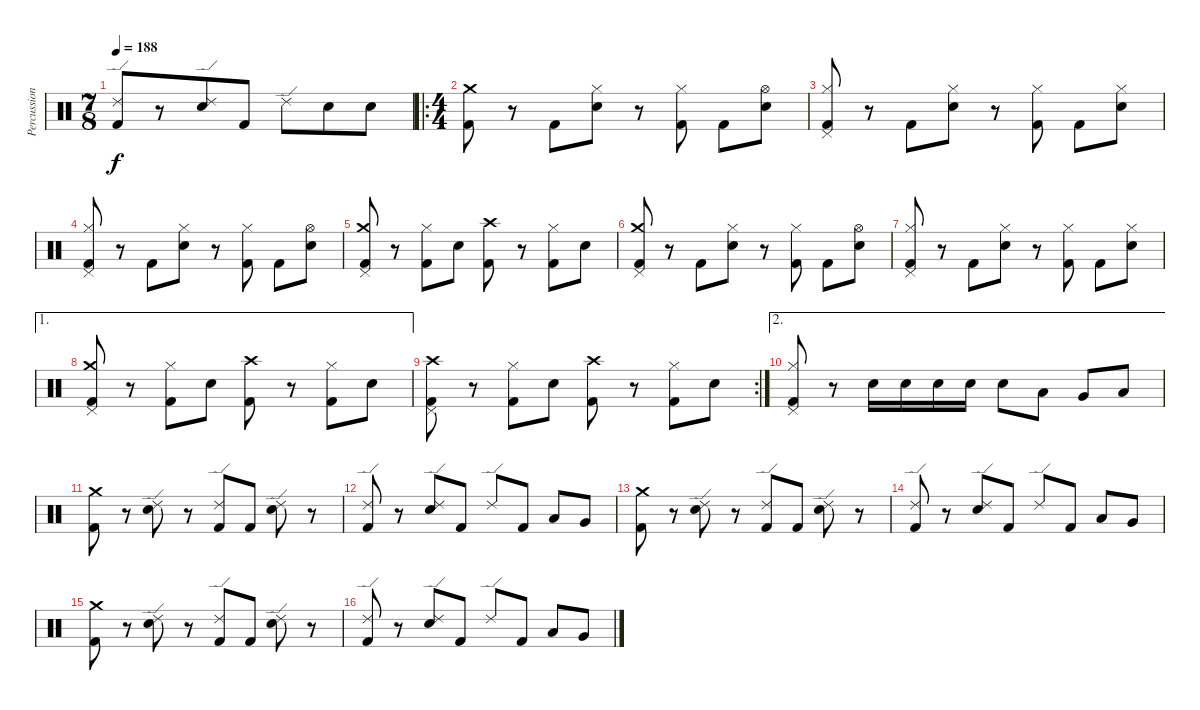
\track ("Percussion" "Percussion") {instrument percussion}
\staff {score}
\articulation defaults
\ts (7 8)
\tempo 188
\clef neutral
\ks c
("Ride (edge) 2" "Kick (hit) 2").8{dy f} r.8 ("Ride (edge) 2" "Snare (hit) 2").8 "Kick (hit) 2".8 "Ride (edge) 2".8 "Snare (hit) 2".8 "Snare (hit) 2".8 |
\ro
\ts (4 4)
("Crash medium (hit)" "Kick (hit) 2").8 r.8 "Kick (hit) 2".8 ("Hi-Hat (closed)" "Snare (hit) 2").8 r.8 ("Hi-Hat (closed)" "Kick (hit) 2").8 "Kick (hit) 2".8 ("Hi-Hat (open)" "Snare (hit) 2").8 |
("Hi-Hat (closed)" "Pedal Hi-Hat (hit)" "Kick (hit) 2").8 r.8 "Kick (hit) 2".8 ("Hi-Hat (closed)" "Snare (hit) 2").8 r.8 ("Hi-Hat (closed)" "Kick (hit) 2").8 "Kick (hit) 2".8 ("Hi-Hat (closed)" "Snare (hit) 2").8 |
("Hi-Hat (closed)" "Pedal Hi-Hat (hit)" "Kick (hit) 2").8 r.8 "Kick (hit) 2".8 ("Hi-Hat (closed)" "Snare (hit) 2").8 r.8 ("Hi-Hat (closed)" "Kick (hit) 2").8 "Kick (hit) 2".8 ("Hi-Hat (open)" "Snare (hit) 2").8 |
("Crash medium (hit)" "Pedal Hi-Hat (hit)" "Kick (hit) 2").8 r.8 ("Hi-Hat (closed)" "Kick (hit) 2").8 "Snare (hit) 2".8 ("Crash high (hit)" "Kick (hit) 2").8 r.8 ("Hi-Hat (closed)" "Kick (hit) 2").8 "Snare (hit) 2".8 |
("Crash medium (hit)" "Pedal Hi-Hat (hit)" "Kick (hit) 2").8 r.8 "Kick (hit) 2".8 ("Hi-Hat (closed)" "Snare (hit) 2").8 r.8 ("Hi-Hat (closed)" "Kick (hit) 2").8 "Kick (hit) 2".8 ("Hi-Hat (open)" "Snare (hit) 2").8 |
("Hi-Hat (closed)" "Pedal Hi-Hat (hit)" "Kick (hit) 2").8 r.8 "Kick (hit) 2".8 ("Hi-Hat (closed)" "Snare (hit) 2").8 r.8 ("Hi-Hat (closed)" "Kick (hit) 2").8 "Kick (hit) 2".8 ("Hi-Hat (closed)" "Snare (hit) 2").8 |
\ae 1
("Crash medium (hit)" "Pedal Hi-Hat (hit)" "Kick (hit) 2").8 r.8 ("Hi-Hat (closed)" "Kick (hit) 2").8 "Snare (hit) 2".8 ("Crash high (hit)" "Kick (hit) 2").8 r.8 ("Hi-Hat (closed)" "Kick (hit) 2").8 "Snare (hit) 2".8 |
\rc 2
("Crash high (hit)" "Pedal Hi-Hat (hit)" "Kick (hit) 2").8 r.8 ("Hi-Hat (closed)" "Kick (hit) 2").8 "Snare (hit) 2".8 ("Crash high (hit)" "Kick (hit) 2").8 r.8 ("Hi-Hat (closed)" "Kick (hit) 2").8 "Snare (hit) 2".8 |
\ae 2
("Hi-Hat (closed)" "Pedal Hi-Hat (hit)" "Kick (hit) 2").8 r.8 "Snare (hit) 2".16 "Snare (hit) 2".16 "Snare (hit) 2".16 "Snare (hit) 2".16 "Snare (hit) 2".8 "Low Tom (hit)".8 "Very Low Tom (hit)".8 "Low Floor Tom (hit)".8 |
("Crash medium (hit)" "Kick (hit) 2").8 r.8 ("Ride (edge) 2" "Snare (hit) 2").8 r.8 ("Ride (edge) 2" "Kick (hit) 2").8 "Kick (hit) 2".8 ("Ride (edge) 2" "Snare (hit) 2").8 r.8 |
("Ride (edge) 2" "Kick (hit) 2").8 r.8 ("Ride (edge) 2" "Snare (hit) 2").8 "Kick (hit) 2".8 "Ride (edge) 2".8 "Kick (hit) 2".8 "Low Tom (hit)".8 "Very Low Tom (hit)".8 |
("Crash medium (hit)" "Kick (hit) 2").8 r.8 ("Ride (edge) 2" "Snare (hit) 2").8 r.8 ("Ride (edge) 2" "Kick (hit) 2").8 "Kick (hit) 2".8 ("Ride (edge) 2" "Snare (hit) 2").8 r.8 |
("Ride (edge) 2" "Kick (hit) 2").8 r.8 ("Ride (edge) 2" "Snare (hit) 2").8 "Kick (hit) 2".8 "Ride (edge) 2".8 "Kick (hit) 2".8 "Low Tom (hit)".8 "Very Low Tom (hit)".8 |
("Crash medium (hit)" "Kick (hit) 2").8 r.8 ("Ride (edge) 2" "Snare (hit) 2").8 r.8 ("Ride (edge) 2" "Kick (hit) 2").8 "Kick (hit) 2".8 ("Ride (edge) 2" "Snare (hit) 2").8 r.8 |
("Ride (edge) 2" "Kick (hit) 2").8 r.8 ("Ride (edge) 2" "Snare (hit) 2").8 "Kick (hit) 2".8 "Ride (edge) 2".8 "Kick (hit) 2".8 "Low Tom (hit)".8 "Very Low Tom (hit)".8
